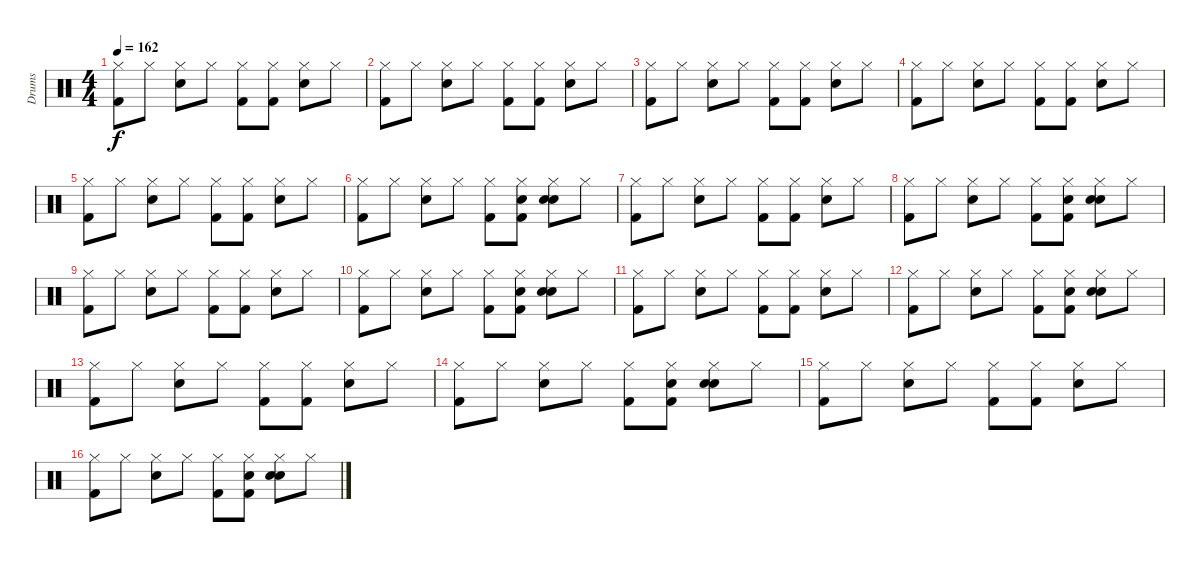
\track ("Drums" "Drums") {instrument percussion}
\staff {score}
\articulation defaults
\ts (4 4)
\tempo 162
\clef neutral
\ks c
("Hi-Hat (closed)" "Kick (hit) 2").8{dy f} "Hi-Hat (closed)".8 ("Hi-Hat (closed)" "Snare (hit) 2").8 "Hi-Hat (closed)".8 ("Hi-Hat (closed)" "Kick (hit) 2").8 ("Hi-Hat (closed)" "Kick (hit) 2").8 ("Hi-Hat (closed)" "Snare (hit) 2").8 "Hi-Hat (closed)".8 |
("Hi-Hat (closed)" "Kick (hit) 2").8 "Hi-Hat (closed)".8 ("Hi-Hat (closed)" "Snare (hit) 2").8 "Hi-Hat (closed)".8 ("Hi-Hat (closed)" "Kick (hit) 2").8 ("Hi-Hat (closed)" "Kick (hit) 2").8 ("Hi-Hat (closed)" "Snare (hit) 2").8 "Hi-Hat (closed)".8 |
("Hi-Hat (closed)" "Kick (hit) 2").8 "Hi-Hat (closed)".8 ("Hi-Hat (closed)" "Snare (hit) 2").8 "Hi-Hat (closed)".8 ("Hi-Hat (closed)" "Kick (hit) 2").8 ("Hi-Hat (closed)" "Kick (hit) 2").8 ("Hi-Hat (closed)" "Snare (hit) 2").8 "Hi-Hat (closed)".8 |
("Hi-Hat (closed)" "Kick (hit) 2").8 "Hi-Hat (closed)".8 ("Hi-Hat (closed)" "Snare (hit) 2").8 "Hi-Hat (closed)".8 ("Hi-Hat (closed)" "Kick (hit) 2").8 ("Hi-Hat (closed)" "Kick (hit) 2").8 ("Hi-Hat (closed)" "Snare (hit) 2").8 "Hi-Hat (closed)".8 |
("Hi-Hat (closed)" "Kick (hit) 2").8 "Hi-Hat (closed)".8 ("Hi-Hat (closed)" "Snare (hit) 2").8 "Hi-Hat (closed)".8 ("Hi-Hat (closed)" "Kick (hit) 2").8 ("Hi-Hat (closed)" "Kick (hit) 2").8 ("Hi-Hat (closed)" "Snare (hit) 2").8 "Hi-Hat (closed)".8 |
("Hi-Hat (closed)" "Kick (hit) 2").8 "Hi-Hat (closed)".8 ("Hi-Hat (closed)" "Snare (hit) 2").8 "Hi-Hat (closed)".8 ("Hi-Hat (closed)" "Kick (hit) 2").8 ("Hi-Hat (closed)" "Hand Clap (hit)" "Kick (hit) 2").8 ("Hi-Hat (closed)" "Snare (hit) 2" "Hand Clap (hit)").8 "Hi-Hat (closed)".8 |
("Hi-Hat (closed)" "Kick (hit) 2").8 "Hi-Hat (closed)".8 ("Hi-Hat (closed)" "Snare (hit) 2").8 "Hi-Hat (closed)".8 ("Hi-Hat (closed)" "Kick (hit) 2").8 ("Hi-Hat (closed)" "Kick (hit) 2").8 ("Hi-Hat (closed)" "Snare (hit) 2").8 "Hi-Hat (closed)".8 |
("Hi-Hat (closed)" "Kick (hit) 2").8 "Hi-Hat (closed)".8 ("Hi-Hat (closed)" "Snare (hit) 2").8 "Hi-Hat (closed)".8 ("Hi-Hat (closed)" "Kick (hit) 2").8 ("Hi-Hat (closed)" "Hand Clap (hit)" "Kick (hit) 2").8 ("Hi-Hat (closed)" "Snare (hit) 2" "Hand Clap (hit)").8 "Hi-Hat (closed)".8 |
("Hi-Hat (closed)" "Kick (hit) 2").8 "Hi-Hat (closed)".8 ("Hi-Hat (closed)" "Snare (hit) 2").8 "Hi-Hat (closed)".8 ("Hi-Hat (closed)" "Kick (hit) 2").8 ("Hi-Hat (closed)" "Kick (hit) 2").8 ("Hi-Hat (closed)" "Snare (hit) 2").8 "Hi-Hat (closed)".8 |
("Hi-Hat (closed)" "Kick (hit) 2").8 "Hi-Hat (closed)".8 ("Hi-Hat (closed)" "Snare (hit) 2").8 "Hi-Hat (closed)".8 ("Hi-Hat (closed)" "Kick (hit) 2").8 ("Hi-Hat (closed)" "Hand Clap (hit)" "Kick (hit) 2").8 ("Hi-Hat (closed)" "Snare (hit) 2" "Hand Clap (hit)").8 "Hi-Hat (closed)".8 |
("Hi-Hat (closed)" "Kick (hit) 2").8 "Hi-Hat (closed)".8 ("Hi-Hat (closed)" "Snare (hit) 2").8 "Hi-Hat (closed)".8 ("Hi-Hat (closed)" "Kick (hit) 2").8 ("Hi-Hat (closed)" "Kick (hit) 2").8 ("Hi-Hat (closed)" "Snare (hit) 2").8 "Hi-Hat (closed)".8 |
("Hi-Hat (closed)" "Kick (hit) 2").8 "Hi-Hat (closed)".8 ("Hi-Hat (closed)" "Snare (hit) 2").8 "Hi-Hat (closed)".8 ("Hi-Hat (closed)" "Kick (hit) 2").8 ("Hi-Hat (closed)" "Hand Clap (hit)" "Kick (hit) 2").8 ("Hi-Hat (closed)" "Snare (hit) 2" "Hand Clap (hit)").8 "Hi-Hat (closed)".8 |
("Hi-Hat (closed)" "Kick (hit) 2").8 "Hi-Hat (closed)".8 ("Hi-Hat (closed)" "Snare (hit) 2").8 "Hi-Hat (closed)".8 ("Hi-Hat (closed)" "Kick (hit) 2").8 ("Hi-Hat (closed)" "Kick (hit) 2").8 ("Hi-Hat (closed)" "Snare (hit) 2").8 "Hi-Hat (closed)".8 |
("Hi-Hat (closed)" "Kick (hit) 2").8 "Hi-Hat (closed)".8 ("Hi-Hat (closed)" "Snare (hit) 2").8 "Hi-Hat (closed)".8 ("Hi-Hat (closed)" "Kick (hit) 2").8 ("Hi-Hat (closed)" "Hand Clap (hit)" "Kick (hit) 2").8 ("Hi-Hat (closed)" "Snare (hit) 2" "Hand Clap (hit)").8 "Hi-Hat (closed)".8 |
("Hi-Hat (closed)" "Kick (hit) 2").8 "Hi-Hat (closed)".8 ("Hi-Hat (closed)" "Snare (hit) 2").8 "Hi-Hat (closed)".8 ("Hi-Hat (closed)" "Kick (hit) 2").8 ("Hi-Hat (closed)" "Kick (hit) 2").8 ("Hi-Hat (closed)" "Snare (hit) 2").8 "Hi-Hat (closed)".8 |
("Hi-Hat (closed)" "Kick (hit) 2").8 "Hi-Hat (closed)".8 ("Hi-Hat (closed)" "Snare (hit) 2").8 "Hi-Hat (closed)".8 ("Hi-Hat (closed)" "Kick (hit) 2").8 ("Hi-Hat (closed)" "Hand Clap (hit)" "Kick (hit) 2").8 ("Hi-Hat (closed)" "Snare (hit) 2" "Hand Clap (hit)").8 "Hi-Hat (closed)".8
